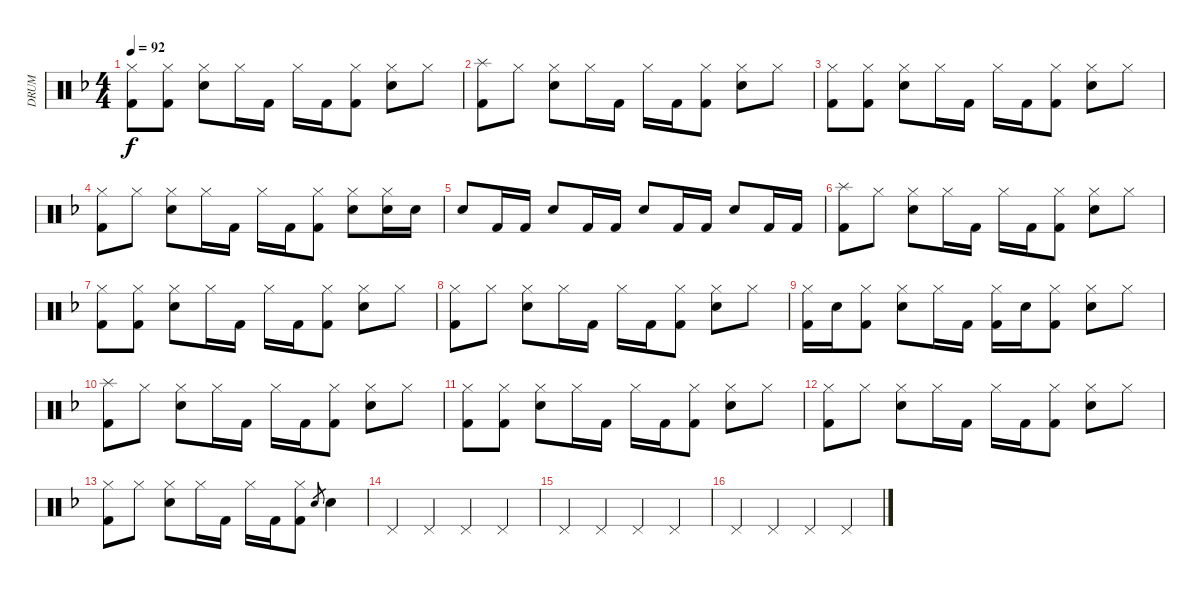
\track ("DRUM" "DRUM") {instrument percussion}
\staff {score}
\articulation defaults
\ts (4 4)
\tempo 92
\clef neutral
\ks f
("Hi-Hat (closed)" "Kick (hit) 2").8{dy f} ("Hi-Hat (closed)" "Kick (hit) 2").8 ("Hi-Hat (closed)" "Electric Snare (hit)").8 "Hi-Hat (closed)".16 "Kick (hit) 2".16 "Hi-Hat (closed)".16 "Kick (hit) 2".16 ("Hi-Hat (closed)" "Kick (hit) 2").8 ("Hi-Hat (closed)" "Electric Snare (hit)").8 "Hi-Hat (closed)".8 |
("Splash (hit)" "Kick (hit) 2").8 "Hi-Hat (closed)".8 ("Hi-Hat (closed)" "Electric Snare (hit)").8 "Hi-Hat (closed)".16 "Kick (hit) 2".16 "Hi-Hat (closed)".16 "Kick (hit) 2".16 ("Hi-Hat (closed)" "Kick (hit) 2").8 ("Hi-Hat (closed)" "Electric Snare (hit)").8 "Hi-Hat (closed)".8 |
("Hi-Hat (closed)" "Kick (hit) 2").8 ("Hi-Hat (closed)" "Kick (hit) 2").8 ("Hi-Hat (closed)" "Electric Snare (hit)").8 "Hi-Hat (closed)".16 "Kick (hit) 2".16 "Hi-Hat (closed)".16 "Kick (hit) 2".16 ("Hi-Hat (closed)" "Kick (hit) 2").8 ("Hi-Hat (closed)" "Electric Snare (hit)").8 "Hi-Hat (closed)".8 |
("Hi-Hat (closed)" "Kick (hit) 2").8 "Hi-Hat (closed)".8 ("Hi-Hat (closed)" "Electric Snare (hit)").8 "Hi-Hat (closed)".16 "Kick (hit) 2".16 "Hi-Hat (closed)".16 "Kick (hit) 2".16 ("Hi-Hat (closed)" "Kick (hit) 2").8 ("Hi-Hat (closed)" "Electric Snare (hit)").8 ("Hi-Hat (closed)" "Electric Snare (hit)").16 "Electric Snare (hit)".16 |
"Electric Snare (hit)".8 "Kick (hit) 2".16 "Kick (hit) 2".16 "Electric Snare (hit)".8 "Kick (hit) 2".16 "Kick (hit) 2".16 "Electric Snare (hit)".8 "Kick (hit) 2".16 "Kick (hit) 2".16 "Electric Snare (hit)".8 "Kick (hit) 2".16 "Kick (hit) 2".16 |
("Splash (hit)" "Kick (hit) 2").8 "Hi-Hat (closed)".8 ("Hi-Hat (closed)" "Electric Snare (hit)").8 "Hi-Hat (closed)".16 "Kick (hit) 2".16 "Hi-Hat (closed)".16 "Kick (hit) 2".16 ("Hi-Hat (closed)" "Kick (hit) 2").8 ("Hi-Hat (closed)" "Electric Snare (hit)").8 "Hi-Hat (closed)".8 |
("Hi-Hat (closed)" "Kick (hit) 2").8 ("Hi-Hat (closed)" "Kick (hit) 2").8 ("Hi-Hat (closed)" "Electric Snare (hit)").8 "Hi-Hat (closed)".16 "Kick (hit) 2".16 "Hi-Hat (closed)".16 "Kick (hit) 2".16 ("Hi-Hat (closed)" "Kick (hit) 2").8 ("Hi-Hat (closed)" "Electric Snare (hit)").8 "Hi-Hat (closed)".8 |
("Hi-Hat (closed)" "Kick (hit) 2").8 "Hi-Hat (closed)".8 ("Hi-Hat (closed)" "Electric Snare (hit)").8 "Hi-Hat (closed)".16 "Kick (hit) 2".16 "Hi-Hat (closed)".16 "Kick (hit) 2".16 ("Hi-Hat (closed)" "Kick (hit) 2").8 ("Hi-Hat (closed)" "Electric Snare (hit)").8 "Hi-Hat (closed)".8 |
("Hi-Hat (closed)" "Kick (hit) 2").16 "Electric Snare (hit)".16 ("Hi-Hat (closed)" "Kick (hit) 2").8 ("Hi-Hat (closed)" "Electric Snare (hit)").8 "Hi-Hat (closed)".16 "Kick (hit) 2".16 ("Hi-Hat (closed)" "Kick (hit) 2").16 "Electric Snare (hit)".16 ("Hi-Hat (closed)" "Kick (hit) 2").8 ("Hi-Hat (closed)" "Electric Snare (hit)").8 "Hi-Hat (closed)".8 |
("Splash (hit)" "Kick (hit) 2").8 "Hi-Hat (closed)".8 ("Hi-Hat (closed)" "Electric Snare (hit)").8 "Hi-Hat (closed)".16 "Kick (hit) 2".16 "Hi-Hat (closed)".16 "Kick (hit) 2".16 ("Hi-Hat (closed)" "Kick (hit) 2").8 ("Hi-Hat (closed)" "Electric Snare (hit)").8 "Hi-Hat (closed)".8 |
("Hi-Hat (closed)" "Kick (hit) 2").8 ("Hi-Hat (closed)" "Kick (hit) 2").8 ("Hi-Hat (closed)" "Electric Snare (hit)").8 "Hi-Hat (closed)".16 "Kick (hit) 2".16 "Hi-Hat (closed)".16 "Kick (hit) 2".16 ("Hi-Hat (closed)" "Kick (hit) 2").8 ("Hi-Hat (closed)" "Electric Snare (hit)").8 "Hi-Hat (closed)".8 |
("Hi-Hat (closed)" "Kick (hit) 2").8 "Hi-Hat (closed)".8 ("Hi-Hat (closed)" "Electric Snare (hit)").8 "Hi-Hat (closed)".16 "Kick (hit) 2".16 "Hi-Hat (closed)".16 "Kick (hit) 2".16 ("Hi-Hat (closed)" "Kick (hit) 2").8 ("Hi-Hat (closed)" "Electric Snare (hit)").8 "Hi-Hat (closed)".8 |
("Hi-Hat (closed)" "Kick (hit) 2").8 "Hi-Hat (closed)".8 ("Hi-Hat (closed)" "Electric Snare (hit)").8 "Hi-Hat (closed)".16 "Kick (hit) 2".16 "Hi-Hat (closed)".16 "Kick (hit) 2".16 ("Hi-Hat (closed)" "Kick (hit) 2").8 "Electric Snare (hit)".8{gr} "Electric Snare (hit)".4 |
"Pedal Hi-Hat (hit)".4 "Pedal Hi-Hat (hit)".4 "Pedal Hi-Hat (hit)".4 "Pedal Hi-Hat (hit)".4 |
"Pedal Hi-Hat (hit)".4 "Pedal Hi-Hat (hit)".4 "Pedal Hi-Hat (hit)".4 "Pedal Hi-Hat (hit)".4 |
"Pedal Hi-Hat (hit)".4 "Pedal Hi-Hat (hit)".4 "Pedal Hi-Hat (hit)".4 "Pedal Hi-Hat (hit)".4
